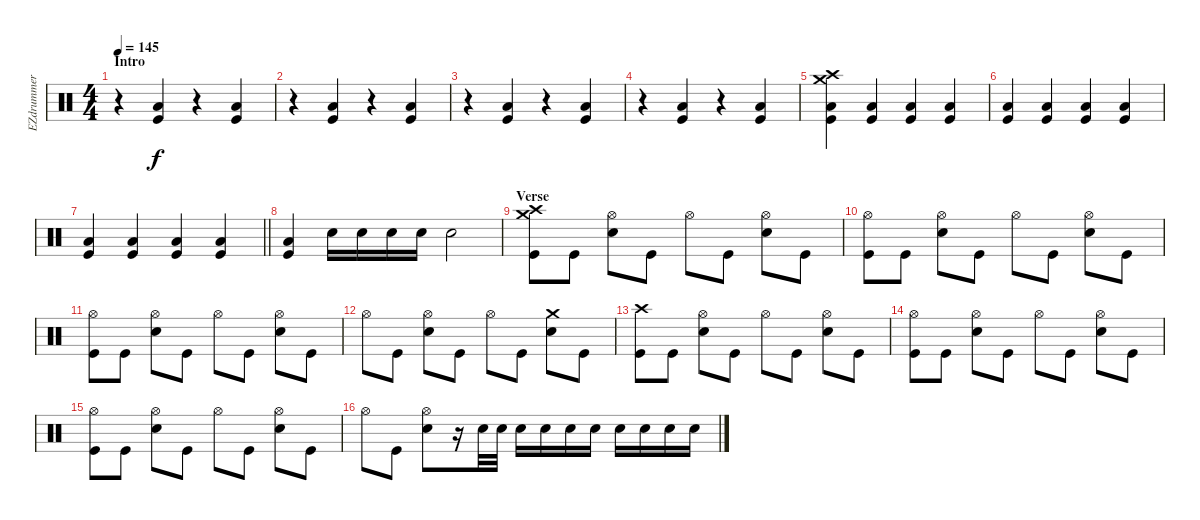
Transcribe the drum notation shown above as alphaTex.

\track ("EZdrummer 01" "EZdrummer ") {instrument percussion}
\staff {score}
\articulation defaults
\ts (4 4)
\section ("" "Intro")
\tempo 145
\clef neutral
\ks c
r.4{dy f} ("Kick (hit)" "Low Floor Tom (hit)").4 r.4 ("Kick (hit)" "Low Floor Tom (hit)").4 |
r.4 ("Kick (hit)" "Low Floor Tom (hit)").4 r.4 ("Kick (hit)" "Low Floor Tom (hit)").4 |
r.4 ("Kick (hit)" "Low Floor Tom (hit)").4 r.4 ("Kick (hit)" "Low Floor Tom (hit)").4 |
r.4 ("Kick (hit)" "Low Floor Tom (hit)").4 r.4 ("Kick (hit)" "Low Floor Tom (hit)").4 |
("Kick (hit)" "Crash high (hit)" "Crash medium (hit)" "Low Floor Tom (hit)").4 ("Kick (hit)" "Low Floor Tom (hit)").4 ("Kick (hit)" "Low Floor Tom (hit)").4 ("Kick (hit)" "Low Floor Tom (hit)").4 |
("Kick (hit)" "Low Floor Tom (hit)").4 ("Kick (hit)" "Low Floor Tom (hit)").4 ("Kick (hit)" "Low Floor Tom (hit)").4 ("Kick (hit)" "Low Floor Tom (hit)").4 |
\barLineRight lightlight
("Kick (hit)" "Low Floor Tom (hit)").4 ("Kick (hit)" "Low Floor Tom (hit)").4 ("Kick (hit)" "Low Floor Tom (hit)").4 ("Kick (hit)" "Low Floor Tom (hit)").4 |
("Kick (hit)" "Low Floor Tom (hit)").4 "Snare (hit) 2".16 "Snare (hit) 2".16 "Snare (hit) 2".16 "Snare (hit) 2".16 "Snare (hit) 2".2 |
\section ("" "Verse")
("Kick (hit)" "Crash high (hit)" "Crash medium (hit)").8 "Kick (hit)".8 ("Snare (hit) 2" "Hi-Hat (open)").8 "Kick (hit)".8 "Hi-Hat (open)".8 "Kick (hit)".8 ("Snare (hit) 2" "Hi-Hat (open)").8 "Kick (hit)".8 |
("Kick (hit)" "Hi-Hat (open)").8 "Kick (hit)".8 ("Snare (hit) 2" "Hi-Hat (open)").8 "Kick (hit)".8 "Hi-Hat (open)".8 "Kick (hit)".8 ("Snare (hit) 2" "Hi-Hat (open)").8 "Kick (hit)".8 |
("Kick (hit)" "Hi-Hat (open)").8 "Kick (hit)".8 ("Snare (hit) 2" "Hi-Hat (open)").8 "Kick (hit)".8 "Hi-Hat (open)".8 "Kick (hit)".8 ("Snare (hit) 2" "Hi-Hat (open)").8 "Kick (hit)".8 |
"Hi-Hat (open)".8 "Kick (hit)".8 ("Snare (hit) 2" "Hi-Hat (open)").8 "Kick (hit)".8 "Hi-Hat (open)".8 "Kick (hit)".8 ("Snare (hit) 2" "Crash medium (hit)").8 "Kick (hit)".8 |
("Kick (hit)" "Crash high (hit)").8 "Kick (hit)".8 ("Snare (hit) 2" "Hi-Hat (open)").8 "Kick (hit)".8 "Hi-Hat (open)".8 "Kick (hit)".8 ("Snare (hit) 2" "Hi-Hat (open)").8 "Kick (hit)".8 |
("Kick (hit)" "Hi-Hat (open)").8 "Kick (hit)".8 ("Snare (hit) 2" "Hi-Hat (open)").8 "Kick (hit)".8 "Hi-Hat (open)".8 "Kick (hit)".8 ("Snare (hit) 2" "Hi-Hat (open)").8 "Kick (hit)".8 |
("Kick (hit)" "Hi-Hat (open)").8 "Kick (hit)".8 ("Snare (hit) 2" "Hi-Hat (open)").8 "Kick (hit)".8 "Hi-Hat (open)".8 "Kick (hit)".8 ("Snare (hit) 2" "Hi-Hat (open)").8 "Kick (hit)".8 |
"Hi-Hat (open)".8 "Kick (hit)".8 ("Snare (hit) 2" "Hi-Hat (open)").8 r.16 "Snare (hit) 2".32 "Snare (hit) 2".32 "Snare (hit) 2".16 "Snare (hit) 2".16 "Snare (hit) 2".16 "Snare (hit) 2".16 "Snare (hit) 2".16 "Snare (hit) 2".16 "Snare (hit) 2".16 "Snare (hit) 2".16
